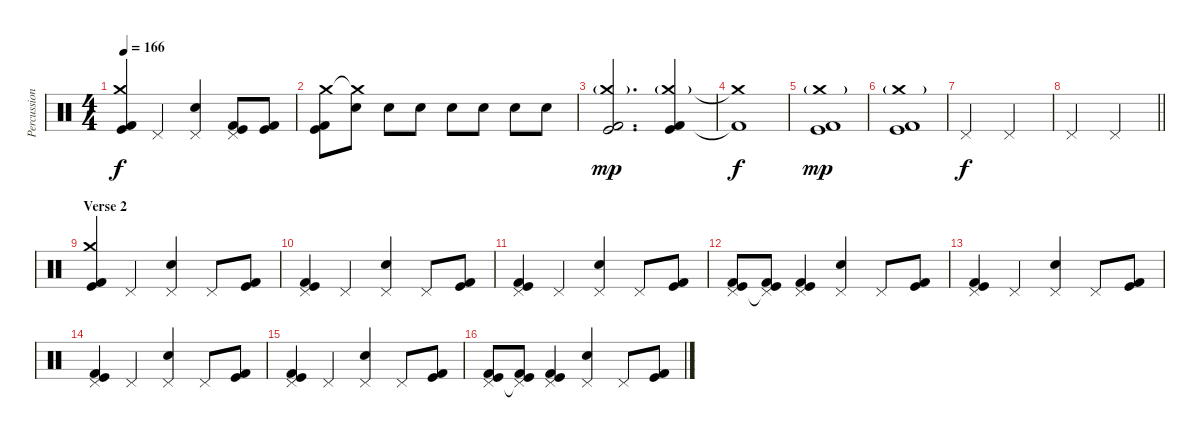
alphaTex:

\track ("Percussion" "Percussion") {instrument percussion}
\staff {score}
\articulation defaults
\ts (4 4)
\tempo 166
\clef neutral
\ks c
("Kick (hit) 2" "Crash medium (hit)" "Kick (hit)").4{dy f} "Pedal Hi-Hat (hit)".4 ("Electric Snare (hit)" "Pedal Hi-Hat (hit)").4 ("Kick (hit) 2" "Pedal Hi-Hat (hit)" "Kick (hit)").8 ("Kick (hit) 2" "Kick (hit)").8 |
("Kick (hit) 2" "Crash medium (hit)" "Kick (hit)").8 ("Electric Snare (hit)" "Crash medium (hit)"{t}).8 "Electric Snare (hit)".8 "Electric Snare (hit)".8 "Electric Snare (hit)".8 "Electric Snare (hit)".8 "Electric Snare (hit)".8 "Electric Snare (hit)".8 |
("Kick (hit) 2" "Crash medium (hit)"{g} "Kick (hit)").2{d dy mp} ("Kick (hit) 2" "Crash medium (hit)"{g} "Kick (hit)").4 |
("Kick (hit) 2"{t} "Crash medium (hit)"{t}).1{dy f} |
("Kick (hit) 2" "Crash medium (hit)"{g} "Kick (hit)").1{dy mp} |
("Kick (hit) 2" "Crash medium (hit)"{g} "Kick (hit)").1 |
"Pedal Hi-Hat (hit)".2{dy f} "Pedal Hi-Hat (hit)".2 |
\barLineRight lightlight "Pedal Hi-Hat (hit)".2 "Pedal Hi-Hat (hit)".2
|
\section ("" "Verse 2")
("Kick (hit) 2" "Crash medium (hit)" "Kick (hit)").4 "Pedal Hi-Hat (hit)".4 ("Electric Snare (hit)" "Pedal Hi-Hat (hit)").4 "Pedal Hi-Hat (hit)".8 ("Kick (hit) 2" "Kick (hit)").8 |
("Kick (hit) 2" "Pedal Hi-Hat (hit)" "Kick (hit)").4 "Pedal Hi-Hat (hit)".4 ("Electric Snare (hit)" "Pedal Hi-Hat (hit)").4 "Pedal Hi-Hat (hit)".8 ("Kick (hit) 2" "Kick (hit)").8 |
("Kick (hit) 2" "Pedal Hi-Hat (hit)" "Kick (hit)").4 "Pedal Hi-Hat (hit)".4 ("Electric Snare (hit)" "Pedal Hi-Hat (hit)").4 "Pedal Hi-Hat (hit)".8 ("Kick (hit) 2" "Kick (hit)").8 |
("Kick (hit) 2" "Pedal Hi-Hat (hit)" "Kick (hit)").8 ("Kick (hit) 2" "Pedal Hi-Hat (hit)"{t} "Kick (hit)").8 ("Kick (hit) 2" "Pedal Hi-Hat (hit)" "Kick (hit)").4 ("Electric Snare (hit)" "Pedal Hi-Hat (hit)").4 "Pedal Hi-Hat (hit)".8 ("Kick (hit) 2" "Kick (hit)").8 |
("Kick (hit) 2" "Pedal Hi-Hat (hit)" "Kick (hit)").4 "Pedal Hi-Hat (hit)".4 ("Electric Snare (hit)" "Pedal Hi-Hat (hit)").4 "Pedal Hi-Hat (hit)".8 ("Kick (hit) 2" "Kick (hit)").8 |
("Kick (hit) 2" "Pedal Hi-Hat (hit)" "Kick (hit)").4 "Pedal Hi-Hat (hit)".4 ("Electric Snare (hit)" "Pedal Hi-Hat (hit)").4 "Pedal Hi-Hat (hit)".8 ("Kick (hit) 2" "Kick (hit)").8 |
("Kick (hit) 2" "Pedal Hi-Hat (hit)" "Kick (hit)").4 "Pedal Hi-Hat (hit)".4 ("Electric Snare (hit)" "Pedal Hi-Hat (hit)").4 "Pedal Hi-Hat (hit)".8 ("Kick (hit) 2" "Kick (hit)").8 |
("Kick (hit) 2" "Pedal Hi-Hat (hit)" "Kick (hit)").8 ("Kick (hit) 2" "Pedal Hi-Hat (hit)"{t} "Kick (hit)").8 ("Kick (hit) 2" "Pedal Hi-Hat (hit)" "Kick (hit)").4 ("Electric Snare (hit)" "Pedal Hi-Hat (hit)").4 "Pedal Hi-Hat (hit)".8 ("Kick (hit) 2" "Kick (hit)").8
